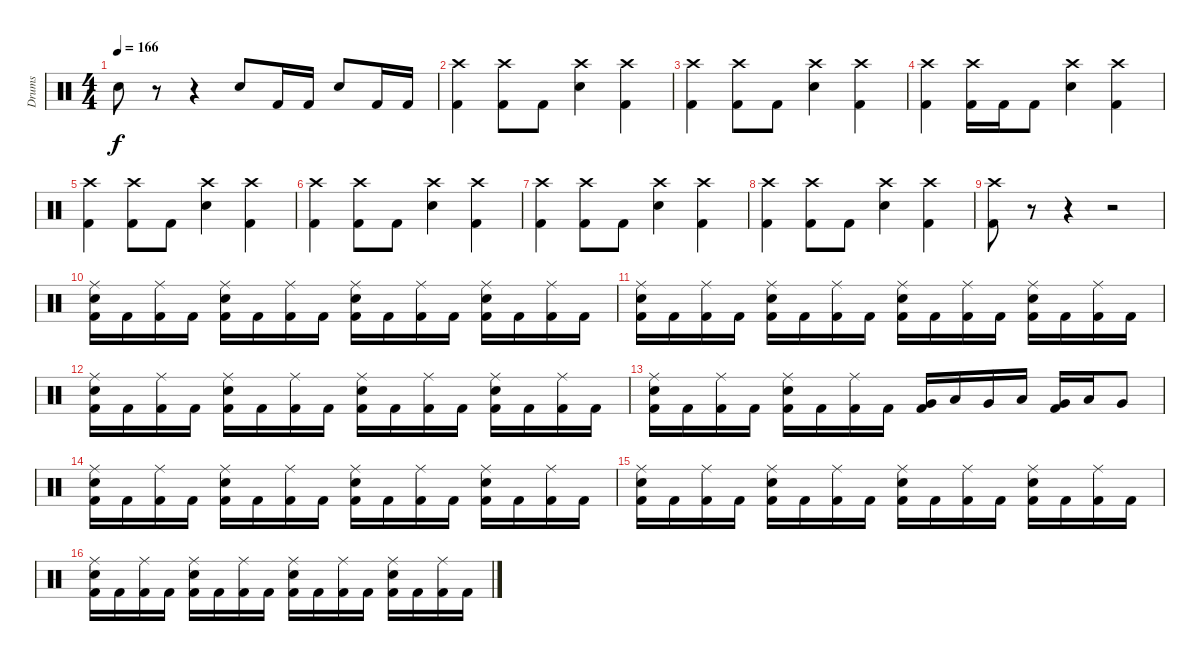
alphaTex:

\track ("Drums" "Drums") {instrument percussion}
\staff {score}
\articulation defaults
\ts (4 4)
\tempo 166
\clef neutral
\ks c "Snare (hit) 2".8{dy f}
r.8 r.4 "Snare (hit) 2".8 "Kick (hit) 2".16 "Kick (hit) 2".16 "Snare (hit) 2".8 "Kick (hit) 2".16 "Kick (hit) 2".16 |
("Crash high (hit)" "Kick (hit) 2").4 ("Crash high (hit)" "Kick (hit) 2").8 "Kick (hit) 2".8 ("Crash high (hit)" "Snare (hit) 2").4 ("Crash high (hit)" "Kick (hit) 2").4 |
("Crash high (hit)" "Kick (hit) 2").4 ("Crash high (hit)" "Kick (hit) 2").8 "Kick (hit) 2".8 ("Crash high (hit)" "Snare (hit) 2").4 ("Crash high (hit)" "Kick (hit) 2").4 |
("Crash high (hit)" "Kick (hit) 2").4 ("Crash high (hit)" "Kick (hit) 2").16 "Kick (hit) 2".16 "Kick (hit) 2".8 ("Crash high (hit)" "Snare (hit) 2").4 ("Crash high (hit)" "Kick (hit) 2").4 |
("Crash high (hit)" "Kick (hit) 2").4 ("Crash high (hit)" "Kick (hit) 2").8 "Kick (hit) 2".8 ("Crash high (hit)" "Snare (hit) 2").4 ("Crash high (hit)" "Kick (hit) 2").4 |
("Crash high (hit)" "Kick (hit) 2").4 ("Crash high (hit)" "Kick (hit) 2").8 "Kick (hit) 2".8 ("Crash high (hit)" "Snare (hit) 2").4 ("Crash high (hit)" "Kick (hit) 2").4 |
("Crash high (hit)" "Kick (hit) 2").4 ("Crash high (hit)" "Kick (hit) 2").8 "Kick (hit) 2".8 ("Crash high (hit)" "Snare (hit) 2").4 ("Crash high (hit)" "Kick (hit) 2").4 |
("Crash high (hit)" "Kick (hit) 2").4 ("Crash high (hit)" "Kick (hit) 2").8 "Kick (hit) 2".8 ("Crash high (hit)" "Snare (hit) 2").4 ("Crash high (hit)" "Kick (hit) 2").4 |
("Crash high (hit)" "Kick (hit) 2").8 r.8 r.4 r.2 |
("Ride (middle)" "Snare (hit) 2" "Kick (hit) 2").16 "Kick (hit) 2".16 ("Ride (middle)" "Kick (hit) 2").16 "Kick (hit) 2".16 ("Ride (middle)" "Snare (hit) 2" "Kick (hit) 2").16 "Kick (hit) 2".16 ("Ride (middle)" "Kick (hit) 2").16 "Kick (hit) 2".16 ("Ride (middle)" "Snare (hit) 2" "Kick (hit) 2").16 "Kick (hit) 2".16 ("Ride (middle)" "Kick (hit) 2").16 "Kick (hit) 2".16 ("Ride (middle)" "Snare (hit) 2" "Kick (hit) 2").16 "Kick (hit) 2".16 ("Ride (middle)" "Kick (hit) 2").16 "Kick (hit) 2".16 |
("Ride (middle)" "Snare (hit) 2" "Kick (hit) 2").16 "Kick (hit) 2".16 ("Ride (middle)" "Kick (hit) 2").16 "Kick (hit) 2".16 ("Ride (middle)" "Snare (hit) 2" "Kick (hit) 2").16 "Kick (hit) 2".16 ("Ride (middle)" "Kick (hit) 2").16 "Kick (hit) 2".16 ("Ride (middle)" "Snare (hit) 2" "Kick (hit) 2").16 "Kick (hit) 2".16 ("Ride (middle)" "Kick (hit) 2").16 "Kick (hit) 2".16 ("Ride (middle)" "Snare (hit) 2" "Kick (hit) 2").16 "Kick (hit) 2".16 ("Ride (middle)" "Kick (hit) 2").16 "Kick (hit) 2".16 |
("Ride (middle)" "Snare (hit) 2" "Kick (hit) 2").16 "Kick (hit) 2".16 ("Ride (middle)" "Kick (hit) 2").16 "Kick (hit) 2".16 ("Ride (middle)" "Snare (hit) 2" "Kick (hit) 2").16 "Kick (hit) 2".16 ("Ride (middle)" "Kick (hit) 2").16 "Kick (hit) 2".16 ("Ride (middle)" "Snare (hit) 2" "Kick (hit) 2").16 "Kick (hit) 2".16 ("Ride (middle)" "Kick (hit) 2").16 "Kick (hit) 2".16 ("Ride (middle)" "Snare (hit) 2" "Kick (hit) 2").16 "Kick (hit) 2".16 ("Ride (middle)" "Kick (hit) 2").16 "Kick (hit) 2".16 |
("Ride (middle)" "Snare (hit) 2" "Kick (hit) 2").16 "Kick (hit) 2".16 ("Ride (middle)" "Kick (hit) 2").16 "Kick (hit) 2".16 ("Ride (middle)" "Snare (hit) 2" "Kick (hit) 2").16 "Kick (hit) 2".16 ("Ride (middle)" "Kick (hit) 2").16 "Kick (hit) 2".16 ("Very Low Tom (hit)" "Kick (hit) 2").16 "Low Tom (hit)".16 "Very Low Tom (hit)".16 "Low Tom (hit)".16 ("Very Low Tom (hit)" "Kick (hit) 2").16 "Low Tom (hit)".16 "Very Low Tom (hit)".8 |
("Ride (middle)" "Snare (hit) 2" "Kick (hit) 2").16 "Kick (hit) 2".16 ("Ride (middle)" "Kick (hit) 2").16 "Kick (hit) 2".16 ("Ride (middle)" "Snare (hit) 2" "Kick (hit) 2").16 "Kick (hit) 2".16 ("Ride (middle)" "Kick (hit) 2").16 "Kick (hit) 2".16 ("Ride (middle)" "Snare (hit) 2" "Kick (hit) 2").16 "Kick (hit) 2".16 ("Ride (middle)" "Kick (hit) 2").16 "Kick (hit) 2".16 ("Ride (middle)" "Snare (hit) 2" "Kick (hit) 2").16 "Kick (hit) 2".16 ("Ride (middle)" "Kick (hit) 2").16 "Kick (hit) 2".16 |
("Ride (middle)" "Snare (hit) 2" "Kick (hit) 2").16 "Kick (hit) 2".16 ("Ride (middle)" "Kick (hit) 2").16 "Kick (hit) 2".16 ("Ride (middle)" "Snare (hit) 2" "Kick (hit) 2").16 "Kick (hit) 2".16 ("Ride (middle)" "Kick (hit) 2").16 "Kick (hit) 2".16 ("Ride (middle)" "Snare (hit) 2" "Kick (hit) 2").16 "Kick (hit) 2".16 ("Ride (middle)" "Kick (hit) 2").16 "Kick (hit) 2".16 ("Ride (middle)" "Snare (hit) 2" "Kick (hit) 2").16 "Kick (hit) 2".16 ("Ride (middle)" "Kick (hit) 2").16 "Kick (hit) 2".16 |
("Ride (middle)" "Snare (hit) 2" "Kick (hit) 2").16 "Kick (hit) 2".16 ("Ride (middle)" "Kick (hit) 2").16 "Kick (hit) 2".16 ("Ride (middle)" "Snare (hit) 2" "Kick (hit) 2").16 "Kick (hit) 2".16 ("Ride (middle)" "Kick (hit) 2").16 "Kick (hit) 2".16 ("Ride (middle)" "Snare (hit) 2" "Kick (hit) 2").16 "Kick (hit) 2".16 ("Ride (middle)" "Kick (hit) 2").16 "Kick (hit) 2".16 ("Ride (middle)" "Snare (hit) 2" "Kick (hit) 2").16 "Kick (hit) 2".16 ("Ride (middle)" "Kick (hit) 2").16 "Kick (hit) 2".16
